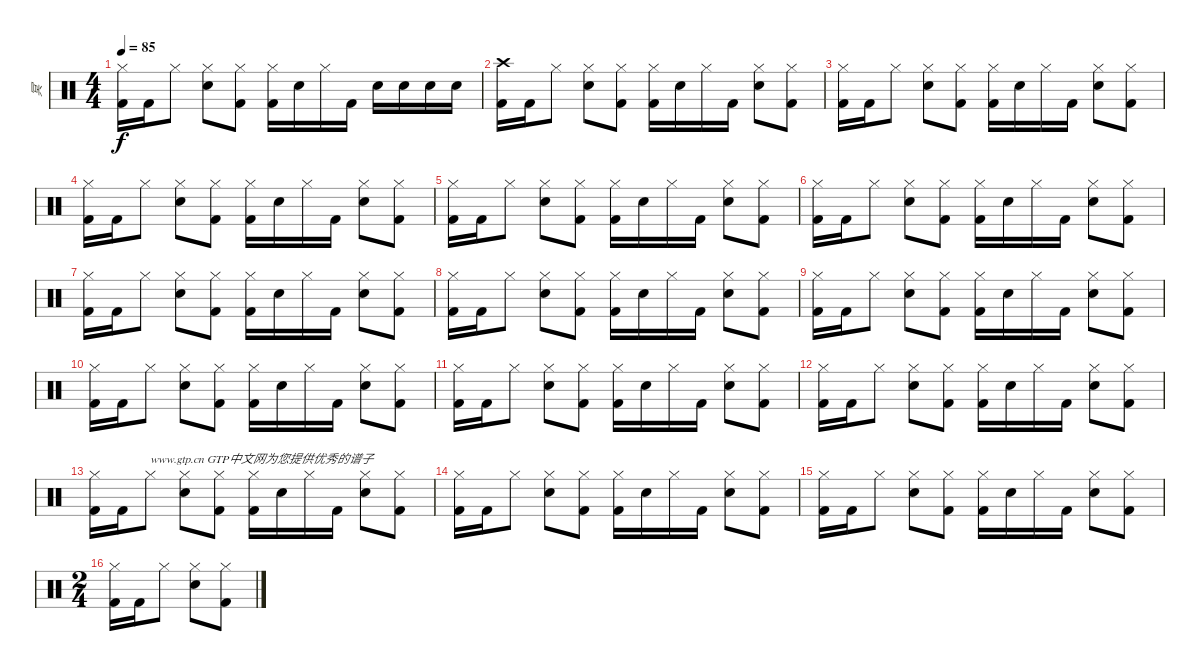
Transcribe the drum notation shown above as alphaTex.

\track ("冥" "冥") {instrument percussion}
\staff {score}
\articulation defaults
\ts (4 4)
\tempo 85
\clef neutral
\ks c
("Hi-Hat (closed)" "Kick (hit) 2").16{dy f} "Kick (hit) 2".16 "Hi-Hat (closed)".8 ("Hi-Hat (closed)" "Snare (hit) 2").8 ("Hi-Hat (closed)" "Kick (hit) 2").8 ("Hi-Hat (closed)" "Kick (hit) 2").16 "Snare (hit) 2".16 "Hi-Hat (closed)".16 "Kick (hit) 2".16 "Snare (hit) 2".16 "Snare (hit) 2".16 "Snare (hit) 2".16 "Snare (hit) 2".16 |
("Crash high (hit)" "Kick (hit) 2").16 "Kick (hit) 2".16 "Hi-Hat (closed)".8 ("Hi-Hat (closed)" "Snare (hit) 2").8 ("Hi-Hat (closed)" "Kick (hit) 2").8 ("Hi-Hat (closed)" "Kick (hit) 2").16 "Snare (hit) 2".16 "Hi-Hat (closed)".16 "Kick (hit) 2".16 ("Hi-Hat (closed)" "Snare (hit) 2").8 ("Hi-Hat (closed)" "Kick (hit) 2").8 |
("Hi-Hat (closed)" "Kick (hit) 2").16 "Kick (hit) 2".16 "Hi-Hat (closed)".8 ("Hi-Hat (closed)" "Snare (hit) 2").8 ("Hi-Hat (closed)" "Kick (hit) 2").8 ("Hi-Hat (closed)" "Kick (hit) 2").16 "Snare (hit) 2".16 "Hi-Hat (closed)".16 "Kick (hit) 2".16 ("Hi-Hat (closed)" "Snare (hit) 2").8 ("Hi-Hat (closed)" "Kick (hit) 2").8 |
("Hi-Hat (closed)" "Kick (hit) 2").16 "Kick (hit) 2".16 "Hi-Hat (closed)".8 ("Hi-Hat (closed)" "Snare (hit) 2").8 ("Hi-Hat (closed)" "Kick (hit) 2").8 ("Hi-Hat (closed)" "Kick (hit) 2").16 "Snare (hit) 2".16 "Hi-Hat (closed)".16 "Kick (hit) 2".16 ("Hi-Hat (closed)" "Snare (hit) 2").8 ("Hi-Hat (closed)" "Kick (hit) 2").8 |
("Hi-Hat (closed)" "Kick (hit) 2").16 "Kick (hit) 2".16 "Hi-Hat (closed)".8 ("Hi-Hat (closed)" "Snare (hit) 2").8 ("Hi-Hat (closed)" "Kick (hit) 2").8 ("Hi-Hat (closed)" "Kick (hit) 2").16 "Snare (hit) 2".16 "Hi-Hat (closed)".16 "Kick (hit) 2".16 ("Hi-Hat (closed)" "Snare (hit) 2").8 ("Hi-Hat (closed)" "Kick (hit) 2").8 |
("Hi-Hat (closed)" "Kick (hit) 2").16 "Kick (hit) 2".16 "Hi-Hat (closed)".8 ("Hi-Hat (closed)" "Snare (hit) 2").8 ("Hi-Hat (closed)" "Kick (hit) 2").8 ("Hi-Hat (closed)" "Kick (hit) 2").16 "Snare (hit) 2".16 "Hi-Hat (closed)".16 "Kick (hit) 2".16 ("Hi-Hat (closed)" "Snare (hit) 2").8 ("Hi-Hat (closed)" "Kick (hit) 2").8 |
("Hi-Hat (closed)" "Kick (hit) 2").16 "Kick (hit) 2".16 "Hi-Hat (closed)".8 ("Hi-Hat (closed)" "Snare (hit) 2").8 ("Hi-Hat (closed)" "Kick (hit) 2").8 ("Hi-Hat (closed)" "Kick (hit) 2").16 "Snare (hit) 2".16 "Hi-Hat (closed)".16 "Kick (hit) 2".16 ("Hi-Hat (closed)" "Snare (hit) 2").8 ("Hi-Hat (closed)" "Kick (hit) 2").8 |
("Hi-Hat (closed)" "Kick (hit) 2").16 "Kick (hit) 2".16 "Hi-Hat (closed)".8 ("Hi-Hat (closed)" "Snare (hit) 2").8 ("Hi-Hat (closed)" "Kick (hit) 2").8 ("Hi-Hat (closed)" "Kick (hit) 2").16 "Snare (hit) 2".16 "Hi-Hat (closed)".16 "Kick (hit) 2".16 ("Hi-Hat (closed)" "Snare (hit) 2").8 ("Hi-Hat (closed)" "Kick (hit) 2").8 |
("Hi-Hat (closed)" "Kick (hit) 2").16 "Kick (hit) 2".16 "Hi-Hat (closed)".8 ("Hi-Hat (closed)" "Snare (hit) 2").8 ("Hi-Hat (closed)" "Kick (hit) 2").8 ("Hi-Hat (closed)" "Kick (hit) 2").16 "Snare (hit) 2".16 "Hi-Hat (closed)".16 "Kick (hit) 2".16 ("Hi-Hat (closed)" "Snare (hit) 2").8 ("Hi-Hat (closed)" "Kick (hit) 2").8 |
("Hi-Hat (closed)" "Kick (hit) 2").16 "Kick (hit) 2".16 "Hi-Hat (closed)".8 ("Hi-Hat (closed)" "Snare (hit) 2").8 ("Hi-Hat (closed)" "Kick (hit) 2").8 ("Hi-Hat (closed)" "Kick (hit) 2").16 "Snare (hit) 2".16 "Hi-Hat (closed)".16 "Kick (hit) 2".16 ("Hi-Hat (closed)" "Snare (hit) 2").8 ("Hi-Hat (closed)" "Kick (hit) 2").8 |
("Hi-Hat (closed)" "Kick (hit) 2").16 "Kick (hit) 2".16 "Hi-Hat (closed)".8 ("Hi-Hat (closed)" "Snare (hit) 2").8 ("Hi-Hat (closed)" "Kick (hit) 2").8 ("Hi-Hat (closed)" "Kick (hit) 2").16 "Snare (hit) 2".16 "Hi-Hat (closed)".16 "Kick (hit) 2".16 ("Hi-Hat (closed)" "Snare (hit) 2").8 ("Hi-Hat (closed)" "Kick (hit) 2").8 |
("Hi-Hat (closed)" "Kick (hit) 2").16 "Kick (hit) 2".16 "Hi-Hat (closed)".8 ("Hi-Hat (closed)" "Snare (hit) 2").8 ("Hi-Hat (closed)" "Kick (hit) 2").8 ("Hi-Hat (closed)" "Kick (hit) 2").16 "Snare (hit) 2".16 "Hi-Hat (closed)".16 "Kick (hit) 2".16 ("Hi-Hat (closed)" "Snare (hit) 2").8 ("Hi-Hat (closed)" "Kick (hit) 2").8 |
("Hi-Hat (closed)" "Kick (hit) 2").16 "Kick (hit) 2".16 "Hi-Hat (closed)".8{txt "www.gtp.cn GTP中文网为您提供优秀的谱子"} ("Hi-Hat (closed)" "Snare (hit) 2").8 ("Hi-Hat (closed)" "Kick (hit) 2").8 ("Hi-Hat (closed)" "Kick (hit) 2").16 "Snare (hit) 2".16 "Hi-Hat (closed)".16 "Kick (hit) 2".16 ("Hi-Hat (closed)" "Snare (hit) 2").8 ("Hi-Hat (closed)" "Kick (hit) 2").8 |
("Hi-Hat (closed)" "Kick (hit) 2").16 "Kick (hit) 2".16 "Hi-Hat (closed)".8 ("Hi-Hat (closed)" "Snare (hit) 2").8 ("Hi-Hat (closed)" "Kick (hit) 2").8 ("Hi-Hat (closed)" "Kick (hit) 2").16 "Snare (hit) 2".16 "Hi-Hat (closed)".16 "Kick (hit) 2".16 ("Hi-Hat (closed)" "Snare (hit) 2").8 ("Hi-Hat (closed)" "Kick (hit) 2").8 |
("Hi-Hat (closed)" "Kick (hit) 2").16 "Kick (hit) 2".16 "Hi-Hat (closed)".8 ("Hi-Hat (closed)" "Snare (hit) 2").8 ("Hi-Hat (closed)" "Kick (hit) 2").8 ("Hi-Hat (closed)" "Kick (hit) 2").16 "Snare (hit) 2".16 "Hi-Hat (closed)".16 "Kick (hit) 2".16 ("Hi-Hat (closed)" "Snare (hit) 2").8 ("Hi-Hat (closed)" "Kick (hit) 2").8 |
\ts (2 4)
("Hi-Hat (closed)" "Kick (hit) 2").16 "Kick (hit) 2".16 "Hi-Hat (closed)".8 ("Hi-Hat (closed)" "Snare (hit) 2").8 ("Hi-Hat (closed)" "Kick (hit) 2").8
